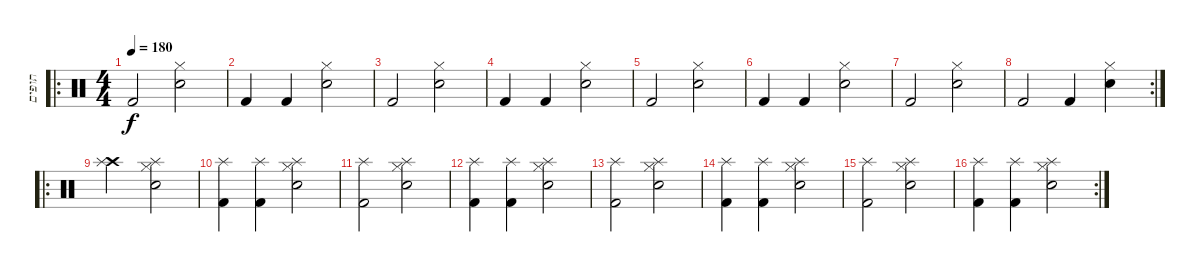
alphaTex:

\track ("תופים" "תופים") {instrument percussion}
\staff {score}
\articulation defaults
\ro
\ts (4 4)
\tempo 180
\clef neutral
\ks c "Kick (hit) 2".2{dy f}
("Hi-Hat (closed)" "Snare (hit) 2").2 |
"Kick (hit) 2".4 "Kick (hit) 2".4 ("Hi-Hat (closed)" "Snare (hit) 2").2 |
"Kick (hit) 2".2 ("Hi-Hat (closed)" "Snare (hit) 2").2 |
"Kick (hit) 2".4 "Kick (hit) 2".4 ("Hi-Hat (closed)" "Snare (hit) 2").2 |
"Kick (hit) 2".2 ("Hi-Hat (closed)" "Snare (hit) 2").2 |
"Kick (hit) 2".4 "Kick (hit) 2".4 ("Hi-Hat (closed)" "Snare (hit) 2").2 |
"Kick (hit) 2".2 ("Hi-Hat (closed)" "Snare (hit) 2").2 |
\rc 2 "Kick (hit) 2".2 "Kick (hit) 2".4
("Hi-Hat (closed)" "Snare (hit) 2").4 |
\ro
("Crash high (hit)" "Splash (hit)").2 ("Hi-Hat (closed)" "Snare (hit) 2" "Splash (hit)").2 |
("Kick (hit) 2" "Splash (hit)").4 ("Kick (hit) 2" "Splash (hit)").4 ("Hi-Hat (closed)" "Snare (hit) 2" "Splash (hit)").2 |
("Kick (hit) 2" "Splash (hit)").2 ("Hi-Hat (closed)" "Snare (hit) 2" "Splash (hit)").2 |
("Kick (hit) 2" "Splash (hit)").4 ("Kick (hit) 2" "Splash (hit)").4 ("Hi-Hat (closed)" "Snare (hit) 2" "Splash (hit)").2 |
("Kick (hit) 2" "Splash (hit)").2 ("Hi-Hat (closed)" "Snare (hit) 2" "Splash (hit)").2 |
("Kick (hit) 2" "Splash (hit)").4 ("Kick (hit) 2" "Splash (hit)").4 ("Hi-Hat (closed)" "Snare (hit) 2" "Splash (hit)").2 |
("Kick (hit) 2" "Splash (hit)").2 ("Hi-Hat (closed)" "Snare (hit) 2" "Splash (hit)").2 |
\rc 2
("Kick (hit) 2" "Splash (hit)").4 ("Kick (hit) 2" "Splash (hit)").4 ("Hi-Hat (closed)" "Snare (hit) 2" "Splash (hit)").2
